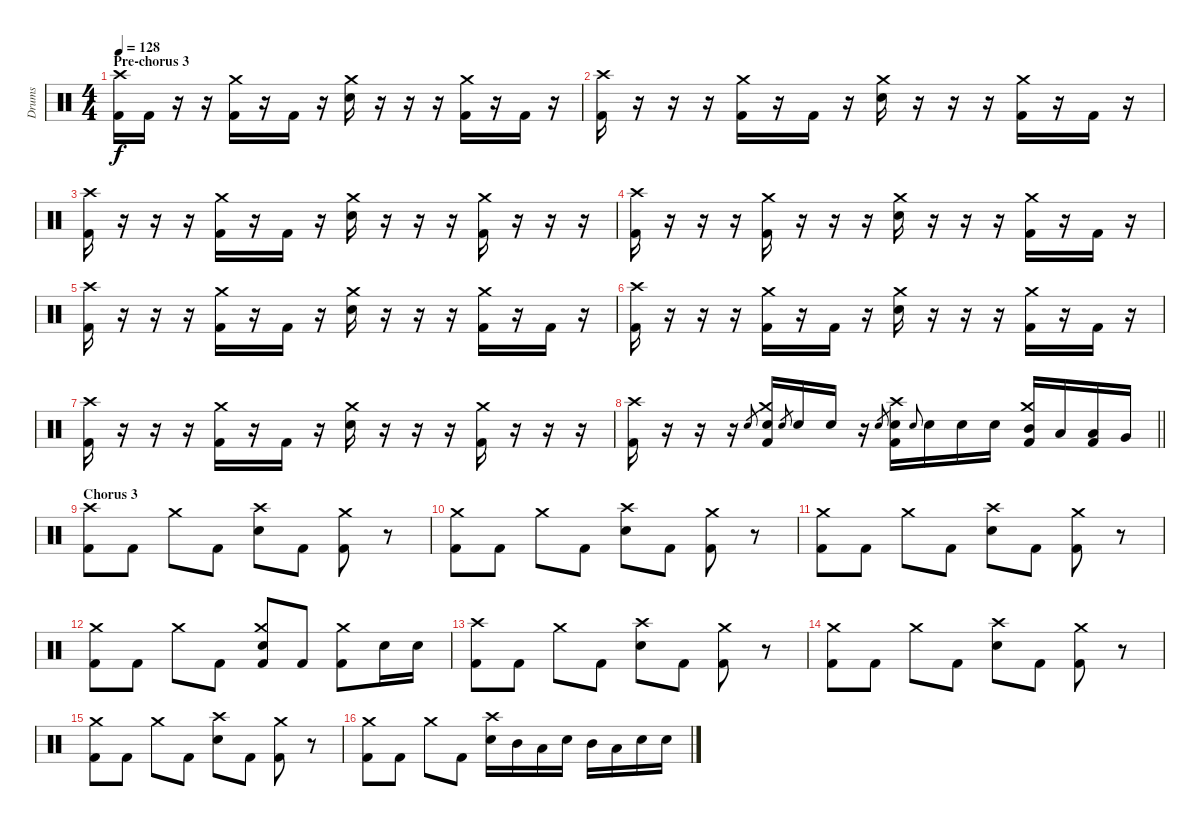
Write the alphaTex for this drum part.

\track ("Drums" "Drums") {instrument percussion}
\staff {score}
\articulation defaults
\ts (4 4)
\section ("" "Pre-chorus 3")
\tempo 128
\clef neutral
\ks c
("Crash high (hit)" "Kick (hit) 2").16{dy f} "Kick (hit) 2".16 r.16 r.16 ("Crash medium (hit)" "Kick (hit) 2").16 r.16 "Kick (hit) 2".16 r.16 ("Crash medium (hit)" "Electric Snare (hit)").16 r.16 r.16 r.16 ("Crash medium (hit)" "Kick (hit) 2").16 r.16 "Kick (hit) 2".16 r.16 |
("Crash high (hit)" "Kick (hit) 2").16 r.16 r.16 r.16 ("Crash medium (hit)" "Kick (hit) 2").16 r.16 "Kick (hit) 2".16 r.16 ("Crash medium (hit)" "Electric Snare (hit)").16 r.16 r.16 r.16 ("Crash medium (hit)" "Kick (hit) 2").16 r.16 "Kick (hit) 2".16 r.16 |
("Crash high (hit)" "Kick (hit) 2").16 r.16 r.16 r.16 ("Crash medium (hit)" "Kick (hit) 2").16 r.16 "Kick (hit) 2".16 r.16 ("Crash medium (hit)" "Electric Snare (hit)").16 r.16 r.16 r.16 ("Crash medium (hit)" "Kick (hit) 2").16 r.16 r.16 r.16 |
("Crash high (hit)" "Kick (hit) 2").16 r.16 r.16 r.16 ("Crash medium (hit)" "Kick (hit) 2").16 r.16 r.16 r.16 ("Crash medium (hit)" "Electric Snare (hit)").16 r.16 r.16 r.16 ("Crash medium (hit)" "Kick (hit) 2").16 r.16 "Kick (hit) 2".16 r.16 |
("Crash high (hit)" "Kick (hit) 2").16 r.16 r.16 r.16 ("Crash medium (hit)" "Kick (hit) 2").16 r.16 "Kick (hit) 2".16 r.16 ("Crash medium (hit)" "Electric Snare (hit)").16 r.16 r.16 r.16 ("Crash medium (hit)" "Kick (hit) 2").16 r.16 "Kick (hit) 2".16 r.16 |
("Crash high (hit)" "Kick (hit) 2").16 r.16 r.16 r.16 ("Crash medium (hit)" "Kick (hit) 2").16 r.16 "Kick (hit) 2".16 r.16 ("Crash medium (hit)" "Electric Snare (hit)").16 r.16 r.16 r.16 ("Crash medium (hit)" "Kick (hit) 2").16 r.16 "Kick (hit) 2".16 r.16 |
("Crash high (hit)" "Kick (hit) 2").16 r.16 r.16 r.16 ("Crash medium (hit)" "Kick (hit) 2").16 r.16 "Kick (hit) 2".16 r.16 ("Crash medium (hit)" "Electric Snare (hit)").16 r.16 r.16 r.16 ("Crash medium (hit)" "Kick (hit) 2").16 r.16 r.16 r.16 |
\barLineRight lightlight
("Crash high (hit)" "Kick (hit) 2").16 r.16 r.16 r.16 "Electric Snare (hit)".8{gr} ("Crash medium (hit)" "Electric Snare (hit)" "Kick (hit) 2").16 "Electric Snare (hit)".8{gr} "Electric Snare (hit)".16 "Electric Snare (hit)".16 r.16 "Electric Snare (hit)".8{gr} ("Crash high (hit)" "Electric Snare (hit)" "Kick (hit) 2").16 "Electric Snare (hit)".8{gr onbeat} "Electric Snare (hit)".16 "Electric Snare (hit)".16 "Electric Snare (hit)".16 ("Crash medium (hit)" "Mid Tom (hit)" "Kick (hit) 2").16 "Low Tom (hit)".16 ("Low Tom (hit)" "Kick (hit) 2").16 "Very Low Tom (hit)".16 |
\section ("" "Chorus 3")
("Crash high (hit)" "Kick (hit) 2").8 "Kick (hit) 2".8 "Crash medium (hit)".8 "Kick (hit) 2".8 ("Crash high (hit)" "Electric Snare (hit)").8 "Kick (hit) 2".8 ("Crash medium (hit)" "Kick (hit) 2").8 r.8 |
("Crash medium (hit)" "Kick (hit) 2").8 "Kick (hit) 2".8 "Crash medium (hit)".8 "Kick (hit) 2".8 ("Crash high (hit)" "Electric Snare (hit)").8 "Kick (hit) 2".8 ("Crash medium (hit)" "Kick (hit) 2").8 r.8 |
("Crash medium (hit)" "Kick (hit) 2").8 "Kick (hit) 2".8 "Crash medium (hit)".8 "Kick (hit) 2".8 ("Crash high (hit)" "Electric Snare (hit)").8 "Kick (hit) 2".8 ("Crash medium (hit)" "Kick (hit) 2").8 r.8 |
("Crash medium (hit)" "Kick (hit) 2").8 "Kick (hit) 2".8 "Crash medium (hit)".8 "Kick (hit) 2".8 ("Crash medium (hit)" "Electric Snare (hit)" "Kick (hit) 2").8 "Kick (hit) 2".8 ("Crash medium (hit)" "Kick (hit) 2").8 "Electric Snare (hit)".16 "Electric Snare (hit)".16 |
("Crash high (hit)" "Kick (hit) 2").8 "Kick (hit) 2".8 "Crash medium (hit)".8 "Kick (hit) 2".8 ("Crash high (hit)" "Electric Snare (hit)").8 "Kick (hit) 2".8 ("Crash medium (hit)" "Kick (hit) 2").8 r.8 |
("Crash medium (hit)" "Kick (hit) 2").8 "Kick (hit) 2".8 "Crash medium (hit)".8 "Kick (hit) 2".8 ("Crash high (hit)" "Electric Snare (hit)").8 "Kick (hit) 2".8 ("Crash medium (hit)" "Kick (hit) 2").8 r.8 |
("Crash medium (hit)" "Kick (hit) 2").8 "Kick (hit) 2".8 "Crash medium (hit)".8 "Kick (hit) 2".8 ("Crash high (hit)" "Electric Snare (hit)").8 "Kick (hit) 2".8 ("Crash medium (hit)" "Kick (hit) 2").8 r.8 |
("Crash medium (hit)" "Kick (hit) 2").8 "Kick (hit) 2".8 "Crash medium (hit)".8 "Kick (hit) 2".8 ("Crash high (hit)" "Electric Snare (hit)").16 "Mid Tom (hit)".16 "Low Tom (hit)".16 "Electric Snare (hit)".16 "Mid Tom (hit)".16 "Low Tom (hit)".16 "Electric Snare (hit)".16 "Electric Snare (hit)".16
